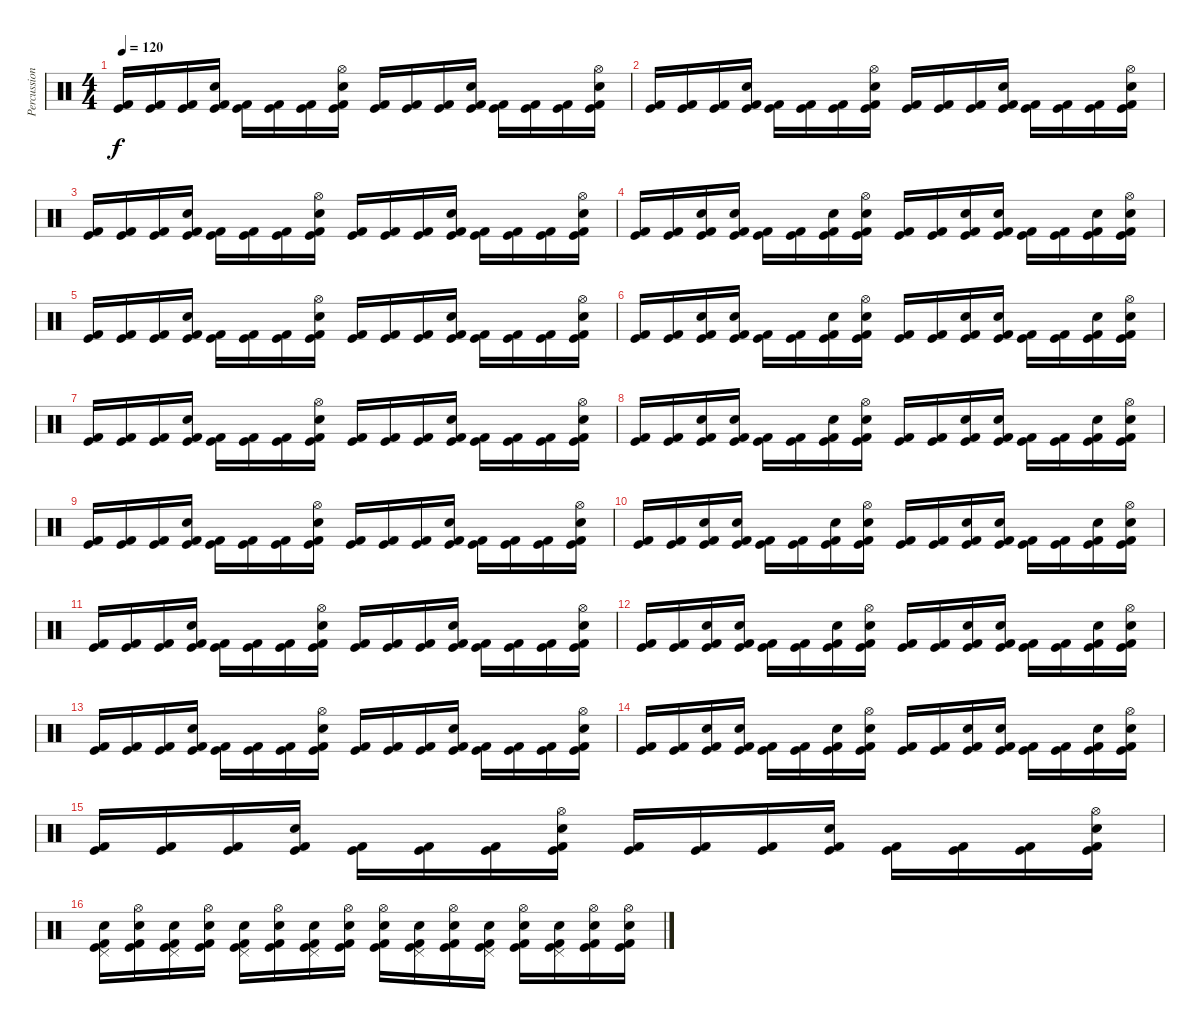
\track ("Percussions" "Percussion") {instrument percussion}
\staff {score}
\articulation defaults
\ts (4 4)
\tempo 120
\clef neutral
\ks c
("Kick (hit)" "Kick (hit) 2").16{dy f} ("Kick (hit)" "Kick (hit) 2").16 ("Kick (hit)" "Kick (hit) 2").16 ("Electric Snare (hit)" "Kick (hit)" "Kick (hit) 2").16 ("Kick (hit)" "Kick (hit) 2").16 ("Kick (hit)" "Kick (hit) 2").16 ("Kick (hit)" "Kick (hit) 2").16 ("Hi-Hat (open)" "Electric Snare (hit)" "Kick (hit)" "Kick (hit) 2").16 ("Kick (hit)" "Kick (hit) 2").16 ("Kick (hit)" "Kick (hit) 2").16 ("Kick (hit)" "Kick (hit) 2").16 ("Electric Snare (hit)" "Kick (hit)" "Kick (hit) 2").16 ("Kick (hit)" "Kick (hit) 2").16 ("Kick (hit)" "Kick (hit) 2").16 ("Kick (hit)" "Kick (hit) 2").16 ("Hi-Hat (open)" "Electric Snare (hit)" "Kick (hit)" "Kick (hit) 2").16 |
("Kick (hit)" "Kick (hit) 2").16 ("Kick (hit)" "Kick (hit) 2").16 ("Kick (hit)" "Kick (hit) 2").16 ("Electric Snare (hit)" "Kick (hit)" "Kick (hit) 2").16 ("Kick (hit)" "Kick (hit) 2").16 ("Kick (hit)" "Kick (hit) 2").16 ("Kick (hit)" "Kick (hit) 2").16 ("Hi-Hat (open)" "Electric Snare (hit)" "Kick (hit)" "Kick (hit) 2").16 ("Kick (hit)" "Kick (hit) 2").16 ("Kick (hit)" "Kick (hit) 2").16 ("Kick (hit)" "Kick (hit) 2").16 ("Electric Snare (hit)" "Kick (hit)" "Kick (hit) 2").16 ("Kick (hit)" "Kick (hit) 2").16 ("Kick (hit)" "Kick (hit) 2").16 ("Kick (hit)" "Kick (hit) 2").16 ("Hi-Hat (open)" "Electric Snare (hit)" "Kick (hit)" "Kick (hit) 2").16 |
("Kick (hit)" "Kick (hit) 2").16 ("Kick (hit)" "Kick (hit) 2").16 ("Kick (hit)" "Kick (hit) 2").16 ("Electric Snare (hit)" "Kick (hit)" "Kick (hit) 2").16 ("Kick (hit)" "Kick (hit) 2").16 ("Kick (hit)" "Kick (hit) 2").16 ("Kick (hit)" "Kick (hit) 2").16 ("Hi-Hat (open)" "Electric Snare (hit)" "Kick (hit)" "Kick (hit) 2").16 ("Kick (hit)" "Kick (hit) 2").16 ("Kick (hit)" "Kick (hit) 2").16 ("Kick (hit)" "Kick (hit) 2").16 ("Electric Snare (hit)" "Kick (hit)" "Kick (hit) 2").16 ("Kick (hit)" "Kick (hit) 2").16 ("Kick (hit)" "Kick (hit) 2").16 ("Kick (hit)" "Kick (hit) 2").16 ("Hi-Hat (open)" "Electric Snare (hit)" "Kick (hit)" "Kick (hit) 2").16 |
("Kick (hit)" "Kick (hit) 2").16 ("Kick (hit)" "Kick (hit) 2").16 ("Electric Snare (hit)" "Kick (hit)" "Kick (hit) 2").16 ("Electric Snare (hit)" "Kick (hit)" "Kick (hit) 2").16 ("Kick (hit)" "Kick (hit) 2").16 ("Kick (hit)" "Kick (hit) 2").16 ("Electric Snare (hit)" "Kick (hit)" "Kick (hit) 2").16 ("Hi-Hat (open)" "Electric Snare (hit)" "Kick (hit)" "Kick (hit) 2").16 ("Kick (hit)" "Kick (hit) 2").16 ("Kick (hit)" "Kick (hit) 2").16 ("Electric Snare (hit)" "Kick (hit)" "Kick (hit) 2").16 ("Electric Snare (hit)" "Kick (hit)" "Kick (hit) 2").16 ("Kick (hit)" "Kick (hit) 2").16 ("Kick (hit)" "Kick (hit) 2").16 ("Electric Snare (hit)" "Kick (hit)" "Kick (hit) 2").16 ("Hi-Hat (open)" "Electric Snare (hit)" "Kick (hit)" "Kick (hit) 2").16 |
("Kick (hit)" "Kick (hit) 2").16 ("Kick (hit)" "Kick (hit) 2").16 ("Kick (hit)" "Kick (hit) 2").16 ("Electric Snare (hit)" "Kick (hit)" "Kick (hit) 2").16 ("Kick (hit)" "Kick (hit) 2").16 ("Kick (hit)" "Kick (hit) 2").16 ("Kick (hit)" "Kick (hit) 2").16 ("Hi-Hat (open)" "Electric Snare (hit)" "Kick (hit)" "Kick (hit) 2").16 ("Kick (hit)" "Kick (hit) 2").16 ("Kick (hit)" "Kick (hit) 2").16 ("Kick (hit)" "Kick (hit) 2").16 ("Electric Snare (hit)" "Kick (hit)" "Kick (hit) 2").16 ("Kick (hit)" "Kick (hit) 2").16 ("Kick (hit)" "Kick (hit) 2").16 ("Kick (hit)" "Kick (hit) 2").16 ("Hi-Hat (open)" "Electric Snare (hit)" "Kick (hit)" "Kick (hit) 2").16 |
("Kick (hit)" "Kick (hit) 2").16 ("Kick (hit)" "Kick (hit) 2").16 ("Electric Snare (hit)" "Kick (hit)" "Kick (hit) 2").16 ("Electric Snare (hit)" "Kick (hit)" "Kick (hit) 2").16 ("Kick (hit)" "Kick (hit) 2").16 ("Kick (hit)" "Kick (hit) 2").16 ("Electric Snare (hit)" "Kick (hit)" "Kick (hit) 2").16 ("Hi-Hat (open)" "Electric Snare (hit)" "Kick (hit)" "Kick (hit) 2").16 ("Kick (hit)" "Kick (hit) 2").16 ("Kick (hit)" "Kick (hit) 2").16 ("Electric Snare (hit)" "Kick (hit)" "Kick (hit) 2").16 ("Electric Snare (hit)" "Kick (hit)" "Kick (hit) 2").16 ("Kick (hit)" "Kick (hit) 2").16 ("Kick (hit)" "Kick (hit) 2").16 ("Electric Snare (hit)" "Kick (hit)" "Kick (hit) 2").16 ("Hi-Hat (open)" "Electric Snare (hit)" "Kick (hit)" "Kick (hit) 2").16 |
("Kick (hit)" "Kick (hit) 2").16 ("Kick (hit)" "Kick (hit) 2").16 ("Kick (hit)" "Kick (hit) 2").16 ("Electric Snare (hit)" "Kick (hit)" "Kick (hit) 2").16 ("Kick (hit)" "Kick (hit) 2").16 ("Kick (hit)" "Kick (hit) 2").16 ("Kick (hit)" "Kick (hit) 2").16 ("Hi-Hat (open)" "Electric Snare (hit)" "Kick (hit)" "Kick (hit) 2").16 ("Kick (hit)" "Kick (hit) 2").16 ("Kick (hit)" "Kick (hit) 2").16 ("Kick (hit)" "Kick (hit) 2").16 ("Electric Snare (hit)" "Kick (hit)" "Kick (hit) 2").16 ("Kick (hit)" "Kick (hit) 2").16 ("Kick (hit)" "Kick (hit) 2").16 ("Kick (hit)" "Kick (hit) 2").16 ("Hi-Hat (open)" "Electric Snare (hit)" "Kick (hit)" "Kick (hit) 2").16 |
("Kick (hit)" "Kick (hit) 2").16 ("Kick (hit)" "Kick (hit) 2").16 ("Electric Snare (hit)" "Kick (hit)" "Kick (hit) 2").16 ("Electric Snare (hit)" "Kick (hit)" "Kick (hit) 2").16 ("Kick (hit)" "Kick (hit) 2").16 ("Kick (hit)" "Kick (hit) 2").16 ("Electric Snare (hit)" "Kick (hit)" "Kick (hit) 2").16 ("Hi-Hat (open)" "Electric Snare (hit)" "Kick (hit)" "Kick (hit) 2").16 ("Kick (hit)" "Kick (hit) 2").16 ("Kick (hit)" "Kick (hit) 2").16 ("Electric Snare (hit)" "Kick (hit)" "Kick (hit) 2").16 ("Electric Snare (hit)" "Kick (hit)" "Kick (hit) 2").16 ("Kick (hit)" "Kick (hit) 2").16 ("Kick (hit)" "Kick (hit) 2").16 ("Electric Snare (hit)" "Kick (hit)" "Kick (hit) 2").16 ("Hi-Hat (open)" "Electric Snare (hit)" "Kick (hit)" "Kick (hit) 2").16 |
("Kick (hit)" "Kick (hit) 2").16 ("Kick (hit)" "Kick (hit) 2").16 ("Kick (hit)" "Kick (hit) 2").16 ("Electric Snare (hit)" "Kick (hit)" "Kick (hit) 2").16 ("Kick (hit)" "Kick (hit) 2").16 ("Kick (hit)" "Kick (hit) 2").16 ("Kick (hit)" "Kick (hit) 2").16 ("Hi-Hat (open)" "Electric Snare (hit)" "Kick (hit)" "Kick (hit) 2").16 ("Kick (hit)" "Kick (hit) 2").16 ("Kick (hit)" "Kick (hit) 2").16 ("Kick (hit)" "Kick (hit) 2").16 ("Electric Snare (hit)" "Kick (hit)" "Kick (hit) 2").16 ("Kick (hit)" "Kick (hit) 2").16 ("Kick (hit)" "Kick (hit) 2").16 ("Kick (hit)" "Kick (hit) 2").16 ("Hi-Hat (open)" "Electric Snare (hit)" "Kick (hit)" "Kick (hit) 2").16 |
("Kick (hit)" "Kick (hit) 2").16 ("Kick (hit)" "Kick (hit) 2").16 ("Electric Snare (hit)" "Kick (hit)" "Kick (hit) 2").16 ("Electric Snare (hit)" "Kick (hit)" "Kick (hit) 2").16 ("Kick (hit)" "Kick (hit) 2").16 ("Kick (hit)" "Kick (hit) 2").16 ("Electric Snare (hit)" "Kick (hit)" "Kick (hit) 2").16 ("Hi-Hat (open)" "Electric Snare (hit)" "Kick (hit)" "Kick (hit) 2").16 ("Kick (hit)" "Kick (hit) 2").16 ("Kick (hit)" "Kick (hit) 2").16 ("Electric Snare (hit)" "Kick (hit)" "Kick (hit) 2").16 ("Electric Snare (hit)" "Kick (hit)" "Kick (hit) 2").16 ("Kick (hit)" "Kick (hit) 2").16 ("Kick (hit)" "Kick (hit) 2").16 ("Electric Snare (hit)" "Kick (hit)" "Kick (hit) 2").16 ("Hi-Hat (open)" "Electric Snare (hit)" "Kick (hit)" "Kick (hit) 2").16 |
("Kick (hit)" "Kick (hit) 2").16 ("Kick (hit)" "Kick (hit) 2").16 ("Kick (hit)" "Kick (hit) 2").16 ("Electric Snare (hit)" "Kick (hit)" "Kick (hit) 2").16 ("Kick (hit)" "Kick (hit) 2").16 ("Kick (hit)" "Kick (hit) 2").16 ("Kick (hit)" "Kick (hit) 2").16 ("Hi-Hat (open)" "Electric Snare (hit)" "Kick (hit)" "Kick (hit) 2").16 ("Kick (hit)" "Kick (hit) 2").16 ("Kick (hit)" "Kick (hit) 2").16 ("Kick (hit)" "Kick (hit) 2").16 ("Electric Snare (hit)" "Kick (hit)" "Kick (hit) 2").16 ("Kick (hit)" "Kick (hit) 2").16 ("Kick (hit)" "Kick (hit) 2").16 ("Kick (hit)" "Kick (hit) 2").16 ("Hi-Hat (open)" "Electric Snare (hit)" "Kick (hit)" "Kick (hit) 2").16 |
("Kick (hit)" "Kick (hit) 2").16 ("Kick (hit)" "Kick (hit) 2").16 ("Electric Snare (hit)" "Kick (hit)" "Kick (hit) 2").16 ("Electric Snare (hit)" "Kick (hit)" "Kick (hit) 2").16 ("Kick (hit)" "Kick (hit) 2").16 ("Kick (hit)" "Kick (hit) 2").16 ("Electric Snare (hit)" "Kick (hit)" "Kick (hit) 2").16 ("Hi-Hat (open)" "Electric Snare (hit)" "Kick (hit)" "Kick (hit) 2").16 ("Kick (hit)" "Kick (hit) 2").16 ("Kick (hit)" "Kick (hit) 2").16 ("Electric Snare (hit)" "Kick (hit)" "Kick (hit) 2").16 ("Electric Snare (hit)" "Kick (hit)" "Kick (hit) 2").16 ("Kick (hit)" "Kick (hit) 2").16 ("Kick (hit)" "Kick (hit) 2").16 ("Electric Snare (hit)" "Kick (hit)" "Kick (hit) 2").16 ("Hi-Hat (open)" "Electric Snare (hit)" "Kick (hit)" "Kick (hit) 2").16 |
("Kick (hit)" "Kick (hit) 2").16 ("Kick (hit)" "Kick (hit) 2").16 ("Kick (hit)" "Kick (hit) 2").16 ("Electric Snare (hit)" "Kick (hit)" "Kick (hit) 2").16 ("Kick (hit)" "Kick (hit) 2").16 ("Kick (hit)" "Kick (hit) 2").16 ("Kick (hit)" "Kick (hit) 2").16 ("Hi-Hat (open)" "Electric Snare (hit)" "Kick (hit)" "Kick (hit) 2").16 ("Kick (hit)" "Kick (hit) 2").16 ("Kick (hit)" "Kick (hit) 2").16 ("Kick (hit)" "Kick (hit) 2").16 ("Electric Snare (hit)" "Kick (hit)" "Kick (hit) 2").16 ("Kick (hit)" "Kick (hit) 2").16 ("Kick (hit)" "Kick (hit) 2").16 ("Kick (hit)" "Kick (hit) 2").16 ("Hi-Hat (open)" "Electric Snare (hit)" "Kick (hit)" "Kick (hit) 2").16 |
("Kick (hit)" "Kick (hit) 2").16 ("Kick (hit)" "Kick (hit) 2").16 ("Electric Snare (hit)" "Kick (hit)" "Kick (hit) 2").16 ("Electric Snare (hit)" "Kick (hit)" "Kick (hit) 2").16 ("Kick (hit)" "Kick (hit) 2").16 ("Kick (hit)" "Kick (hit) 2").16 ("Electric Snare (hit)" "Kick (hit)" "Kick (hit) 2").16 ("Hi-Hat (open)" "Electric Snare (hit)" "Kick (hit)" "Kick (hit) 2").16 ("Kick (hit)" "Kick (hit) 2").16 ("Kick (hit)" "Kick (hit) 2").16 ("Electric Snare (hit)" "Kick (hit)" "Kick (hit) 2").16 ("Electric Snare (hit)" "Kick (hit)" "Kick (hit) 2").16 ("Kick (hit)" "Kick (hit) 2").16 ("Kick (hit)" "Kick (hit) 2").16 ("Electric Snare (hit)" "Kick (hit)" "Kick (hit) 2").16 ("Hi-Hat (open)" "Electric Snare (hit)" "Kick (hit)" "Kick (hit) 2").16 |
("Kick (hit)" "Kick (hit) 2").16 ("Kick (hit)" "Kick (hit) 2").16 ("Kick (hit)" "Kick (hit) 2").16 ("Electric Snare (hit)" "Kick (hit)" "Kick (hit) 2").16 ("Kick (hit)" "Kick (hit) 2").16 ("Kick (hit)" "Kick (hit) 2").16 ("Kick (hit)" "Kick (hit) 2").16 ("Hi-Hat (open)" "Electric Snare (hit)" "Kick (hit)" "Kick (hit) 2").16 ("Kick (hit)" "Kick (hit) 2").16 ("Kick (hit)" "Kick (hit) 2").16 ("Kick (hit)" "Kick (hit) 2").16 ("Electric Snare (hit)" "Kick (hit)" "Kick (hit) 2").16 ("Kick (hit)" "Kick (hit) 2").16 ("Kick (hit)" "Kick (hit) 2").16 ("Kick (hit)" "Kick (hit) 2").16 ("Hi-Hat (open)" "Electric Snare (hit)" "Kick (hit)" "Kick (hit) 2").16 |
("Pedal Hi-Hat (hit)" "Electric Snare (hit)" "Kick (hit)" "Kick (hit) 2").16 ("Hi-Hat (open)" "Electric Snare (hit)" "Kick (hit)" "Kick (hit) 2").16 ("Pedal Hi-Hat (hit)" "Electric Snare (hit)" "Kick (hit)" "Kick (hit) 2").16 ("Hi-Hat (open)" "Electric Snare (hit)" "Kick (hit)" "Kick (hit) 2").16 ("Pedal Hi-Hat (hit)" "Electric Snare (hit)" "Kick (hit)" "Kick (hit) 2").16 ("Hi-Hat (open)" "Electric Snare (hit)" "Kick (hit)" "Kick (hit) 2").16 ("Pedal Hi-Hat (hit)" "Electric Snare (hit)" "Kick (hit)" "Kick (hit) 2").16 ("Hi-Hat (open)" "Electric Snare (hit)" "Kick (hit)" "Kick (hit) 2").16 ("Hi-Hat (open)" "Electric Snare (hit)" "Kick (hit)" "Kick (hit) 2").16 ("Pedal Hi-Hat (hit)" "Electric Snare (hit)" "Kick (hit)" "Kick (hit) 2").16 ("Hi-Hat (open)" "Electric Snare (hit)" "Kick (hit)" "Kick (hit) 2").16 ("Pedal Hi-Hat (hit)" "Electric Snare (hit)" "Kick (hit)" "Kick (hit) 2").16 ("Hi-Hat (open)" "Electric Snare (hit)" "Kick (hit)" "Kick (hit) 2").16 ("Pedal Hi-Hat (hit)" "Electric Snare (hit)" "Kick (hit)" "Kick (hit) 2").16 ("Hi-Hat (open)" "Electric Snare (hit)" "Kick (hit)" "Kick (hit) 2").16 ("Hi-Hat (open)" "Electric Snare (hit)" "Kick (hit)" "Kick (hit) 2").16
